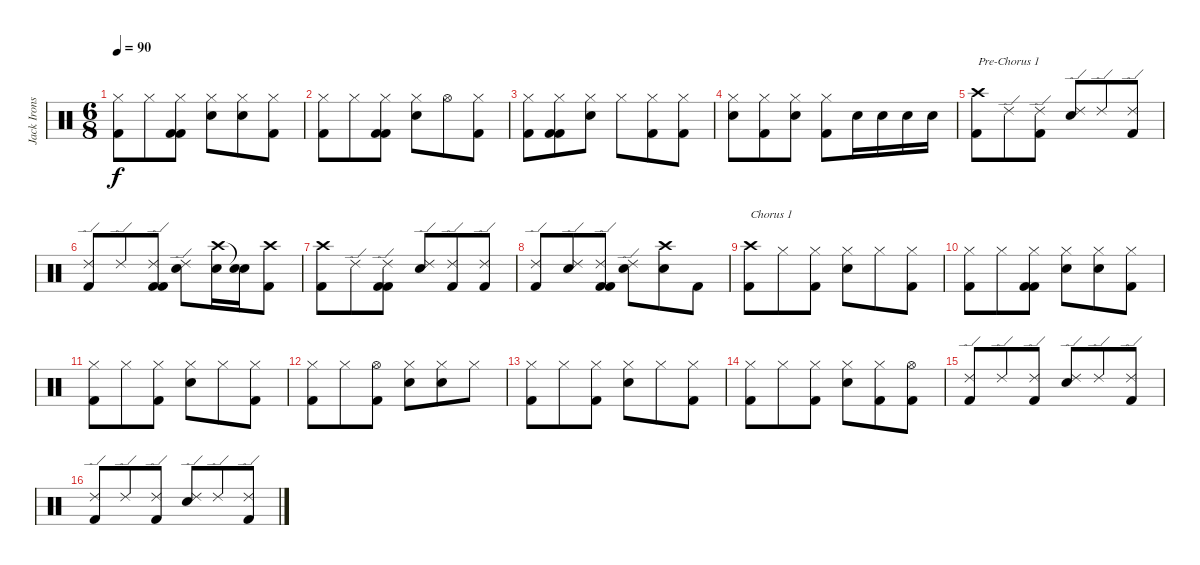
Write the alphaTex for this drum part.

\track ("Jack Irons" "Jack Irons") {instrument percussion}
\staff {score}
\articulation defaults
\ts (6 8)
\tempo 90
\clef neutral
\ks c
("Hi-Hat (closed)" "Kick (hit) 2").8{dy f} "Hi-Hat (closed)".8 ("Hi-Hat (closed)" "Kick (hit) 2" "Kick (hit) 2").8 ("Hi-Hat (closed)" "Snare (hit) 2").8 ("Hi-Hat (closed)" "Snare (hit) 2").8 ("Hi-Hat (closed)" "Kick (hit) 2").8 |
("Hi-Hat (closed)" "Kick (hit) 2").8 "Hi-Hat (closed)".8 ("Hi-Hat (closed)" "Kick (hit) 2" "Kick (hit) 2").8 ("Hi-Hat (closed)" "Snare (hit) 2").8 "Hi-Hat (open)".8 ("Hi-Hat (closed)" "Kick (hit) 2").8 |
("Hi-Hat (closed)" "Kick (hit) 2").8 ("Hi-Hat (closed)" "Kick (hit) 2" "Kick (hit) 2").8 ("Hi-Hat (closed)" "Snare (hit) 2").8 "Hi-Hat (closed)".8 ("Hi-Hat (closed)" "Kick (hit) 2").8 ("Hi-Hat (closed)" "Kick (hit) 2").8 |
("Hi-Hat (closed)" "Snare (hit) 2").8 ("Hi-Hat (closed)" "Kick (hit) 2").8 ("Hi-Hat (closed)" "Snare (hit) 2").8 ("Hi-Hat (closed)" "Kick (hit) 2").8 "Snare (hit) 2".16 "Snare (hit) 2".16 "Snare (hit) 2".16 "Snare (hit) 2".16 |
("Crash high (hit)" "Kick (hit) 2").8{txt "Pre-Chorus 1"} "Ride (edge) 2".8 ("Ride (edge) 2" "Kick (hit) 2").8 ("Ride (edge) 2" "Snare (hit) 2").8 "Ride (edge) 2".8 ("Ride (edge) 2" "Kick (hit) 2").8 |
("Ride (edge) 2" "Kick (hit) 2").8 "Ride (edge) 2".8 ("Ride (edge) 2" "Kick (hit) 2" "Kick (hit) 2").8 ("Ride (edge) 2" "Snare (hit) 2").8 ("Crash high (hit)" "Snare (hit) 2").16 ("Snare (hit)"{t} "Snare (hit) 2").16 ("Crash high (hit)" "Kick (hit) 2").8 |
("Crash high (hit)" "Kick (hit) 2").8 "Ride (edge) 2".8 ("Ride (edge) 2" "Kick (hit) 2" "Kick (hit) 2").8 ("Ride (edge) 2" "Snare (hit) 2").8 ("Ride (edge) 2" "Kick (hit) 2").8 ("Ride (edge) 2" "Kick (hit) 2").8 |
("Ride (edge) 2" "Kick (hit) 2").8 ("Ride (edge) 2" "Snare (hit) 2").8 ("Ride (edge) 2" "Kick (hit) 2" "Kick (hit) 2").8 ("Ride (edge) 2" "Snare (hit) 2").8 ("Crash high (hit)" "Snare (hit) 2").8 "Kick (hit) 2".8 |
("Crash high (hit)" "Kick (hit) 2").8{txt "Chorus 1"} "Hi-Hat (closed)".8 ("Hi-Hat (closed)" "Kick (hit) 2").8 ("Hi-Hat (closed)" "Snare (hit) 2").8 "Hi-Hat (closed)".8 ("Hi-Hat (closed)" "Kick (hit) 2").8 |
("Hi-Hat (closed)" "Kick (hit) 2").8 "Hi-Hat (closed)".8 ("Hi-Hat (closed)" "Kick (hit) 2" "Kick (hit) 2").8 ("Hi-Hat (closed)" "Snare (hit) 2").8 ("Hi-Hat (closed)" "Snare (hit) 2").8 ("Hi-Hat (closed)" "Kick (hit) 2").8 |
("Hi-Hat (closed)" "Kick (hit) 2").8 "Hi-Hat (closed)".8 ("Hi-Hat (closed)" "Kick (hit) 2").8 ("Hi-Hat (closed)" "Snare (hit) 2").8 "Hi-Hat (closed)".8 ("Hi-Hat (closed)" "Kick (hit) 2").8 |
("Hi-Hat (closed)" "Kick (hit) 2").8 "Hi-Hat (closed)".8 ("Hi-Hat (open)" "Kick (hit) 2").8 ("Hi-Hat (closed)" "Snare (hit) 2").8 ("Hi-Hat (closed)" "Snare (hit) 2").8 "Hi-Hat (closed)".8 |
("Hi-Hat (closed)" "Kick (hit) 2").8 "Hi-Hat (closed)".8 ("Hi-Hat (closed)" "Kick (hit) 2").8 ("Hi-Hat (closed)" "Snare (hit) 2").8 "Hi-Hat (closed)".8 ("Hi-Hat (closed)" "Kick (hit) 2").8 |
("Hi-Hat (closed)" "Kick (hit) 2").8 "Hi-Hat (closed)".8 ("Hi-Hat (closed)" "Kick (hit) 2").8 ("Hi-Hat (closed)" "Snare (hit) 2").8 ("Hi-Hat (closed)" "Kick (hit) 2").8 ("Hi-Hat (open)" "Kick (hit) 2").8 |
("Ride (edge) 2" "Kick (hit) 2").8 "Ride (edge) 2".8 ("Ride (edge) 2" "Kick (hit) 2").8 ("Ride (edge) 2" "Snare (hit) 2").8 "Ride (edge) 2".8 ("Ride (edge) 2" "Kick (hit) 2").8 |
("Ride (edge) 2" "Kick (hit) 2").8 "Ride (edge) 2".8 ("Ride (edge) 2" "Kick (hit) 2").8 ("Ride (edge) 2" "Snare (hit) 2").8 "Ride (edge) 2".8 ("Ride (edge) 2" "Kick (hit) 2").8
